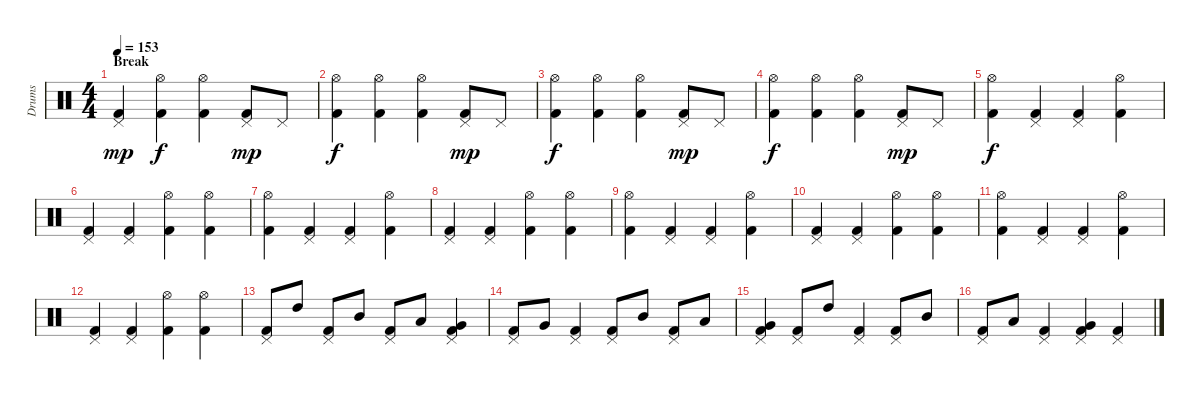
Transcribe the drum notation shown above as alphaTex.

\track ("Drums" "Drums") {instrument percussion}
\staff {score}
\articulation defaults
\ts (4 4)
\section ("" "Break")
\tempo 153
\clef neutral
\ks c
("Pedal Hi-Hat (hit)" "Kick (hit) 2").4{dy mp} ("Hi-Hat (open)" "Kick (hit) 2").4{dy f} ("Hi-Hat (open)" "Kick (hit) 2").4 ("Pedal Hi-Hat (hit)" "Kick (hit) 2").8{dy mp} "Pedal Hi-Hat (hit)".8 |
("Hi-Hat (open)" "Kick (hit) 2").4{dy f} ("Hi-Hat (open)" "Kick (hit) 2").4 ("Hi-Hat (open)" "Kick (hit) 2").4 ("Pedal Hi-Hat (hit)" "Kick (hit) 2").8{dy mp} "Pedal Hi-Hat (hit)".8 |
("Hi-Hat (open)" "Kick (hit) 2").4{dy f} ("Hi-Hat (open)" "Kick (hit) 2").4 ("Hi-Hat (open)" "Kick (hit) 2").4 ("Pedal Hi-Hat (hit)" "Kick (hit) 2").8{dy mp} "Pedal Hi-Hat (hit)".8 |
("Hi-Hat (open)" "Kick (hit) 2").4{dy f} ("Hi-Hat (open)" "Kick (hit) 2").4 ("Hi-Hat (open)" "Kick (hit) 2").4 ("Pedal Hi-Hat (hit)" "Kick (hit) 2").8{dy mp} "Pedal Hi-Hat (hit)".8 |
("Hi-Hat (open)" "Kick (hit) 2").4{dy f} ("Pedal Hi-Hat (hit)" "Kick (hit) 2").4 ("Pedal Hi-Hat (hit)" "Kick (hit) 2").4 ("Hi-Hat (open)" "Kick (hit) 2").4 |
("Pedal Hi-Hat (hit)" "Kick (hit) 2").4 ("Pedal Hi-Hat (hit)" "Kick (hit) 2").4 ("Hi-Hat (open)" "Kick (hit) 2").4 ("Hi-Hat (open)" "Kick (hit) 2").4 |
("Hi-Hat (open)" "Kick (hit) 2").4 ("Pedal Hi-Hat (hit)" "Kick (hit) 2").4 ("Pedal Hi-Hat (hit)" "Kick (hit) 2").4 ("Hi-Hat (open)" "Kick (hit) 2").4 |
("Pedal Hi-Hat (hit)" "Kick (hit) 2").4 ("Pedal Hi-Hat (hit)" "Kick (hit) 2").4 ("Hi-Hat (open)" "Kick (hit) 2").4 ("Hi-Hat (open)" "Kick (hit) 2").4 |
("Hi-Hat (open)" "Kick (hit) 2").4 ("Pedal Hi-Hat (hit)" "Kick (hit) 2").4 ("Pedal Hi-Hat (hit)" "Kick (hit) 2").4 ("Hi-Hat (open)" "Kick (hit) 2").4 |
("Pedal Hi-Hat (hit)" "Kick (hit) 2").4 ("Pedal Hi-Hat (hit)" "Kick (hit) 2").4 ("Hi-Hat (open)" "Kick (hit) 2").4 ("Hi-Hat (open)" "Kick (hit) 2").4 |
("Hi-Hat (open)" "Kick (hit) 2").4 ("Pedal Hi-Hat (hit)" "Kick (hit) 2").4 ("Pedal Hi-Hat (hit)" "Kick (hit) 2").4 ("Hi-Hat (open)" "Kick (hit) 2").4 |
("Pedal Hi-Hat (hit)" "Kick (hit) 2").4 ("Pedal Hi-Hat (hit)" "Kick (hit) 2").4 ("Hi-Hat (open)" "Kick (hit) 2").4 ("Hi-Hat (open)" "Kick (hit) 2").4 |
("Pedal Hi-Hat (hit)" "Kick (hit) 2").8 "High Tom (hit)".8 ("Pedal Hi-Hat (hit)" "Kick (hit) 2").8 "Mid Tom (hit)".8 ("Pedal Hi-Hat (hit)" "Kick (hit) 2").8 "Low Tom (hit)".8 ("Pedal Hi-Hat (hit)" "Very Low Tom (hit)" "Kick (hit) 2").4 |
("Pedal Hi-Hat (hit)" "Kick (hit) 2").8 "Very Low Tom (hit)".8 ("Pedal Hi-Hat (hit)" "Kick (hit) 2").4 ("Pedal Hi-Hat (hit)" "Kick (hit) 2").8 "Mid Tom (hit)".8 ("Pedal Hi-Hat (hit)" "Kick (hit) 2").8 "Low Tom (hit)".8 |
("Pedal Hi-Hat (hit)" "Very Low Tom (hit)" "Kick (hit) 2").4 ("Pedal Hi-Hat (hit)" "Kick (hit) 2").8 "High Tom (hit)".8 ("Pedal Hi-Hat (hit)" "Kick (hit) 2").4 ("Pedal Hi-Hat (hit)" "Kick (hit) 2").8 "Mid Tom (hit)".8 |
("Pedal Hi-Hat (hit)" "Kick (hit) 2").8 "Low Tom (hit)".8 ("Pedal Hi-Hat (hit)" "Kick (hit) 2").4 ("Pedal Hi-Hat (hit)" "Very Low Tom (hit)" "Kick (hit) 2").4 ("Pedal Hi-Hat (hit)" "Kick (hit) 2").4
